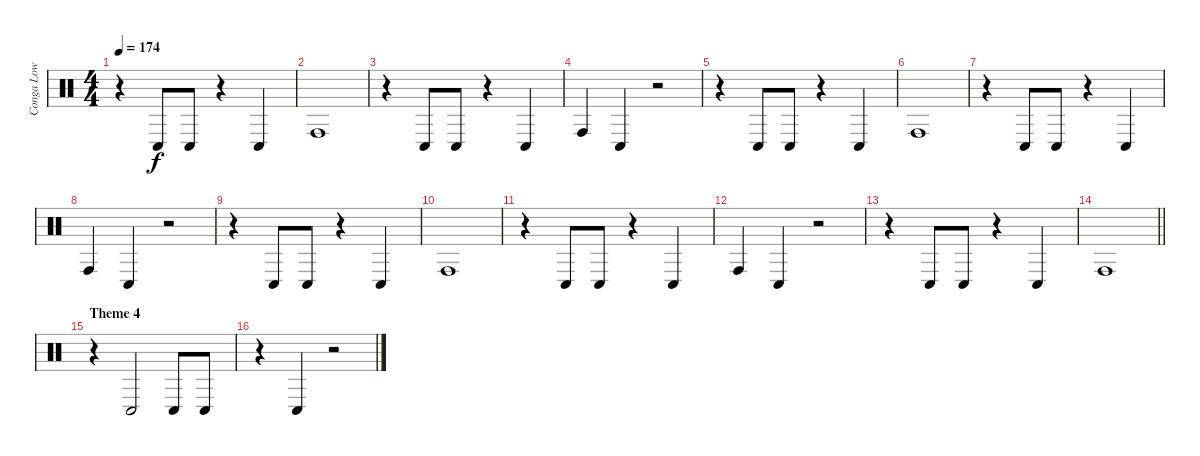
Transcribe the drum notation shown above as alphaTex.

\track ("Conga Low" "Conga Low") {instrument percussion}
\staff {score}
\articulation defaults
\ts (4 4)
\tempo 174
\clef neutral
\ks c
r.4{dy f} "Conga low (hit)".8 "Conga low (hit)".8 r.4 "Conga low (hit)".4 |
"Conga high (hit)".1 |
r.4 "Conga low (hit)".8 "Conga low (hit)".8 r.4 "Conga low (hit)".4 |
"Conga high (hit)".4 "Conga low (hit)".4 r.2 |
r.4 "Conga low (hit)".8 "Conga low (hit)".8 r.4 "Conga low (hit)".4 |
"Conga high (hit)".1 |
r.4 "Conga low (hit)".8 "Conga low (hit)".8 r.4 "Conga low (hit)".4 |
"Conga high (hit)".4 "Conga low (hit)".4 r.2 |
r.4 "Conga low (hit)".8 "Conga low (hit)".8 r.4 "Conga low (hit)".4 |
"Conga high (hit)".1 |
r.4 "Conga low (hit)".8 "Conga low (hit)".8 r.4 "Conga low (hit)".4 |
"Conga high (hit)".4 "Conga low (hit)".4 r.2 |
r.4 "Conga low (hit)".8 "Conga low (hit)".8 r.4 "Conga low (hit)".4 |
\barLineRight lightlight "Conga high (hit)".1
|
\section ("" "Theme 4")
r.4 "Conga low (hit)".2 "Conga low (hit)".8 "Conga low (hit)".8 |
r.4 "Conga low (hit)".4 r.2
